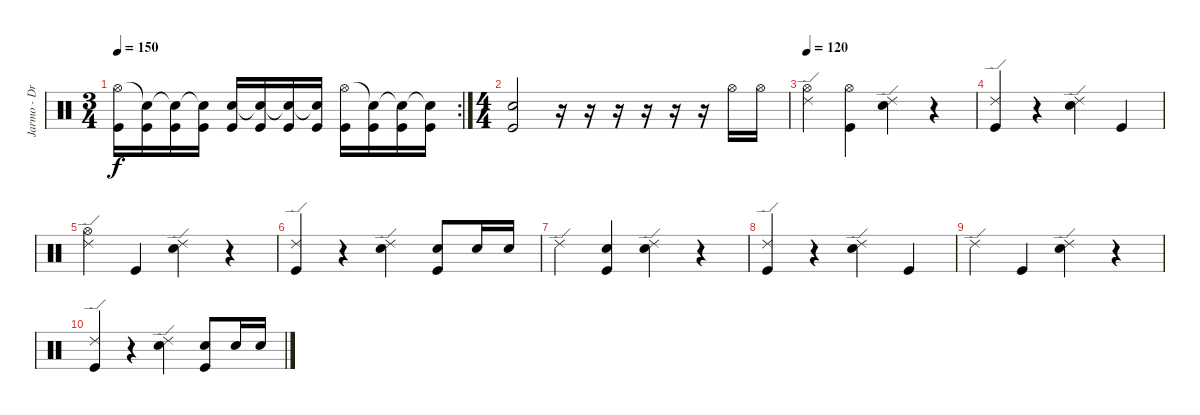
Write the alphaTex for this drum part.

\track ("Jarmo - Drums/Vodka" "Jarmo - Dr") {instrument percussion}
\staff {score}
\articulation defaults
\rc 2
\ts (3 4)
\tempo 150
\clef neutral
\ks c
("Kick (hit)" "Hi-Hat (open)").16{dy f} ("Kick (hit)" "Snare (hit)"{t}).16 ("Kick (hit)" "Snare (hit)"{t}).16 ("Kick (hit)" "Snare (hit)"{t}).16 ("Kick (hit)" "Electric Snare (hit)").16 ("Kick (hit)" "Snare (hit)"{t}).16 ("Kick (hit)" "Snare (hit)"{t}).16 ("Kick (hit)" "Snare (hit)"{t}).16 ("Kick (hit)" "Hi-Hat (open)").16 ("Kick (hit)" "Snare (hit)"{t}).16 ("Kick (hit)" "Snare (hit)"{t}).16 ("Kick (hit)" "Snare (hit)"{t}).16 |
\ts (4 4)
("Kick (hit)" "Electric Snare (hit)").2 r.16 r.16 r.16 r.16 r.16 r.16 "Hi-Hat (open)".16 "Hi-Hat (open)".16 |
\tempo 120
("Hi-Hat (open)" "Ride (edge) 2").4 ("Kick (hit)" "Hi-Hat (open)").4 ("Electric Snare (hit)" "Ride (edge) 2").4 r.4 |
("Kick (hit)" "Ride (edge) 2").4 r.4 ("Electric Snare (hit)" "Ride (edge) 2").4 "Kick (hit)".4 |
("Hi-Hat (open)" "Ride (edge) 2").4 "Kick (hit)".4 ("Electric Snare (hit)" "Ride (edge) 2").4 r.4 |
("Kick (hit)" "Ride (edge) 2").4 r.4 ("Electric Snare (hit)" "Ride (edge) 2").4 ("Kick (hit)" "Electric Snare (hit)").8 "Electric Snare (hit)".16 "Electric Snare (hit)".16 |
"Ride (edge) 2".4 ("Kick (hit)" "Electric Snare (hit)").4 ("Electric Snare (hit)" "Ride (edge) 2").4 r.4 |
("Kick (hit)" "Ride (edge) 2").4 r.4 ("Electric Snare (hit)" "Ride (edge) 2").4 "Kick (hit)".4 |
"Ride (edge) 2".4 "Kick (hit)".4 ("Electric Snare (hit)" "Ride (edge) 2").4 r.4 |
("Kick (hit)" "Ride (edge) 2").4 r.4 ("Electric Snare (hit)" "Ride (edge) 2").4 ("Kick (hit)" "Electric Snare (hit)").8 "Electric Snare (hit)".16 "Electric Snare (hit)".16
